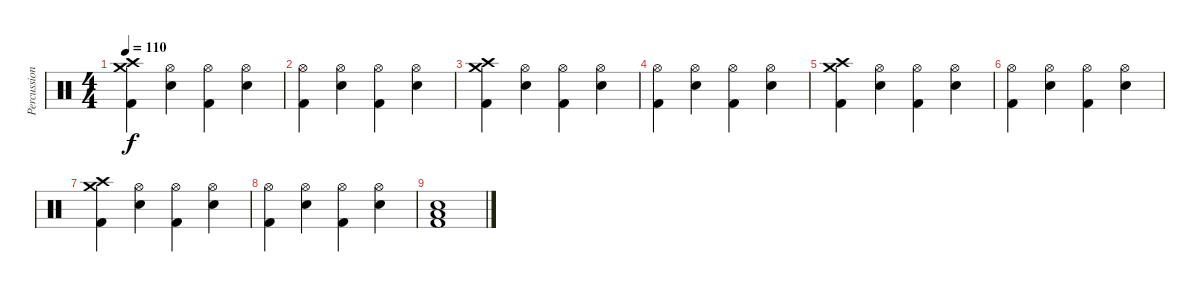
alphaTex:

\track ("Percussion" "Percussion") {instrument percussion}
\staff {score}
\articulation defaults
\ts (4 4)
\tempo 110
\clef neutral
\ks c
("Crash medium (hit)" "Crash high (hit)" "Kick (hit) 2").4{dy f} ("Hi-Hat (open)" "Snare (hit) 2").4 ("Hi-Hat (open)" "Kick (hit) 2").4 ("Hi-Hat (open)" "Snare (hit) 2").4 |
("Hi-Hat (open)" "Kick (hit) 2").4 ("Hi-Hat (open)" "Snare (hit) 2").4 ("Hi-Hat (open)" "Kick (hit) 2").4 ("Hi-Hat (open)" "Snare (hit) 2").4 |
("Crash medium (hit)" "Crash high (hit)" "Kick (hit) 2").4 ("Hi-Hat (open)" "Snare (hit) 2").4 ("Hi-Hat (open)" "Kick (hit) 2").4 ("Hi-Hat (open)" "Snare (hit) 2").4 |
("Hi-Hat (open)" "Kick (hit) 2").4 ("Hi-Hat (open)" "Snare (hit) 2").4 ("Hi-Hat (open)" "Kick (hit) 2").4 ("Hi-Hat (open)" "Snare (hit) 2").4 |
("Crash medium (hit)" "Crash high (hit)" "Kick (hit) 2").4 ("Hi-Hat (open)" "Snare (hit) 2").4 ("Hi-Hat (open)" "Kick (hit) 2").4 ("Hi-Hat (open)" "Snare (hit) 2").4 |
("Hi-Hat (open)" "Kick (hit) 2").4 ("Hi-Hat (open)" "Snare (hit) 2").4 ("Hi-Hat (open)" "Kick (hit) 2").4 ("Hi-Hat (open)" "Snare (hit) 2").4 |
("Crash medium (hit)" "Crash high (hit)" "Kick (hit) 2").4 ("Hi-Hat (open)" "Snare (hit) 2").4 ("Hi-Hat (open)" "Kick (hit) 2").4 ("Hi-Hat (open)" "Snare (hit) 2").4 |
("Hi-Hat (open)" "Kick (hit) 2").4 ("Hi-Hat (open)" "Snare (hit) 2").4 ("Hi-Hat (open)" "Kick (hit) 2").4 ("Hi-Hat (open)" "Snare (hit) 2").4 |
("Snare (hit) 2" "Low Floor Tom (hit)" "Kick (hit) 2").1
